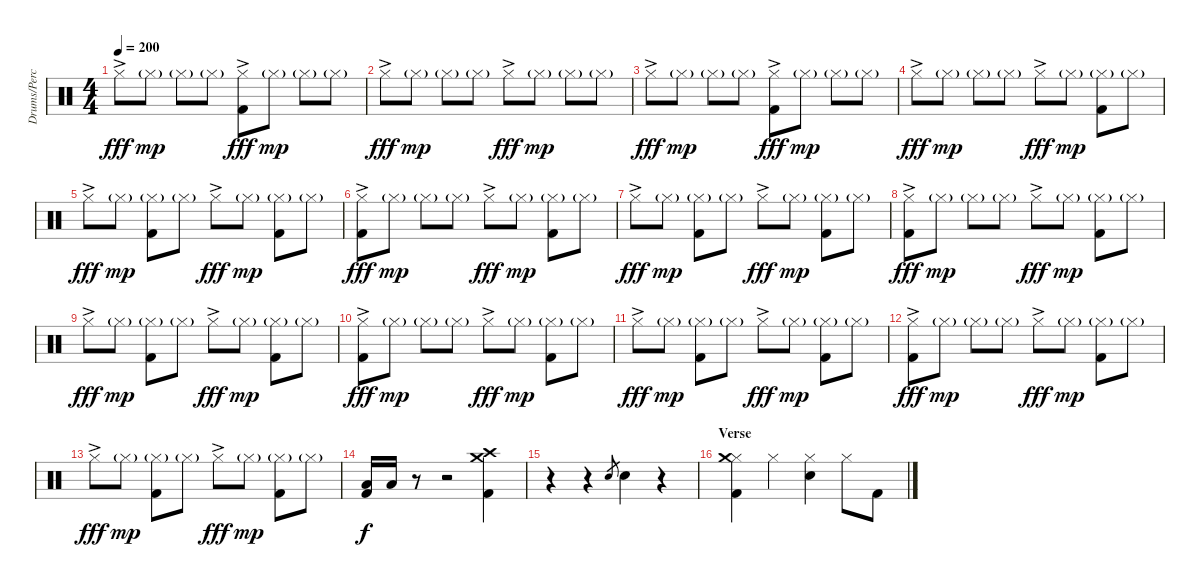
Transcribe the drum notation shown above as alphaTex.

\track ("Drums/Percussion" "Drums/Perc") {instrument percussion}
\staff {score}
\articulation defaults
\ts (4 4)
\tempo 200
\clef neutral
\ks c "Hi-Hat (closed)"{ac}.8{dy fff} "Hi-Hat (closed)"{g}.8{dy mp} "Hi-Hat (closed)"{g}.8 "Hi-Hat (closed)"{g}.8
("Kick (hit) 2" "Hi-Hat (closed)"{ac}).8{dy fff} "Hi-Hat (closed)"{g}.8{dy mp} "Hi-Hat (closed)"{g}.8 "Hi-Hat (closed)"{g}.8 |
"Hi-Hat (closed)"{ac}.8{dy fff} "Hi-Hat (closed)"{g}.8{dy mp} "Hi-Hat (closed)"{g}.8 "Hi-Hat (closed)"{g}.8 "Hi-Hat (closed)"{ac}.8{dy fff} "Hi-Hat (closed)"{g}.8{dy mp} "Hi-Hat (closed)"{g}.8 "Hi-Hat (closed)"{g}.8 |
"Hi-Hat (closed)"{ac}.8{dy fff} "Hi-Hat (closed)"{g}.8{dy mp} "Hi-Hat (closed)"{g}.8 "Hi-Hat (closed)"{g}.8 ("Kick (hit) 2" "Hi-Hat (closed)"{ac}).8{dy fff} "Hi-Hat (closed)"{g}.8{dy mp} "Hi-Hat (closed)"{g}.8 "Hi-Hat (closed)"{g}.8 |
"Hi-Hat (closed)"{ac}.8{dy fff} "Hi-Hat (closed)"{g}.8{dy mp} "Hi-Hat (closed)"{g}.8 "Hi-Hat (closed)"{g}.8 "Hi-Hat (closed)"{ac}.8{dy fff} "Hi-Hat (closed)"{g}.8{dy mp} ("Kick (hit) 2" "Hi-Hat (closed)"{g}).8 "Hi-Hat (closed)"{g}.8 |
"Hi-Hat (closed)"{ac}.8{dy fff} "Hi-Hat (closed)"{g}.8{dy mp} ("Kick (hit) 2" "Hi-Hat (closed)"{g}).8 "Hi-Hat (closed)"{g}.8 "Hi-Hat (closed)"{ac}.8{dy fff} "Hi-Hat (closed)"{g}.8{dy mp} ("Kick (hit) 2" "Hi-Hat (closed)"{g}).8 "Hi-Hat (closed)"{g}.8 |
("Kick (hit) 2" "Hi-Hat (closed)"{ac}).8{dy fff} "Hi-Hat (closed)"{g}.8{dy mp} "Hi-Hat (closed)"{g}.8 "Hi-Hat (closed)"{g}.8 "Hi-Hat (closed)"{ac}.8{dy fff} "Hi-Hat (closed)"{g}.8{dy mp} ("Kick (hit) 2" "Hi-Hat (closed)"{g}).8 "Hi-Hat (closed)"{g}.8 |
"Hi-Hat (closed)"{ac}.8{dy fff} "Hi-Hat (closed)"{g}.8{dy mp} ("Kick (hit) 2" "Hi-Hat (closed)"{g}).8 "Hi-Hat (closed)"{g}.8 "Hi-Hat (closed)"{ac}.8{dy fff} "Hi-Hat (closed)"{g}.8{dy mp} ("Kick (hit) 2" "Hi-Hat (closed)"{g}).8 "Hi-Hat (closed)"{g}.8 |
("Kick (hit) 2" "Hi-Hat (closed)"{ac}).8{dy fff} "Hi-Hat (closed)"{g}.8{dy mp} "Hi-Hat (closed)"{g}.8 "Hi-Hat (closed)"{g}.8 "Hi-Hat (closed)"{ac}.8{dy fff} "Hi-Hat (closed)"{g}.8{dy mp} ("Kick (hit) 2" "Hi-Hat (closed)"{g}).8 "Hi-Hat (closed)"{g}.8 |
"Hi-Hat (closed)"{ac}.8{dy fff} "Hi-Hat (closed)"{g}.8{dy mp} ("Kick (hit) 2" "Hi-Hat (closed)"{g}).8 "Hi-Hat (closed)"{g}.8 "Hi-Hat (closed)"{ac}.8{dy fff} "Hi-Hat (closed)"{g}.8{dy mp} ("Kick (hit) 2" "Hi-Hat (closed)"{g}).8 "Hi-Hat (closed)"{g}.8 |
("Kick (hit) 2" "Hi-Hat (closed)"{ac}).8{dy fff} "Hi-Hat (closed)"{g}.8{dy mp} "Hi-Hat (closed)"{g}.8 "Hi-Hat (closed)"{g}.8 "Hi-Hat (closed)"{ac}.8{dy fff} "Hi-Hat (closed)"{g}.8{dy mp} ("Kick (hit) 2" "Hi-Hat (closed)"{g}).8 "Hi-Hat (closed)"{g}.8 |
"Hi-Hat (closed)"{ac}.8{dy fff} "Hi-Hat (closed)"{g}.8{dy mp} ("Kick (hit) 2" "Hi-Hat (closed)"{g}).8 "Hi-Hat (closed)"{g}.8 "Hi-Hat (closed)"{ac}.8{dy fff} "Hi-Hat (closed)"{g}.8{dy mp} ("Kick (hit) 2" "Hi-Hat (closed)"{g}).8 "Hi-Hat (closed)"{g}.8 |
("Kick (hit) 2" "Hi-Hat (closed)"{ac}).8{dy fff} "Hi-Hat (closed)"{g}.8{dy mp} "Hi-Hat (closed)"{g}.8 "Hi-Hat (closed)"{g}.8 "Hi-Hat (closed)"{ac}.8{dy fff} "Hi-Hat (closed)"{g}.8{dy mp} ("Kick (hit) 2" "Hi-Hat (closed)"{g}).8 "Hi-Hat (closed)"{g}.8 |
"Hi-Hat (closed)"{ac}.8{dy fff} "Hi-Hat (closed)"{g}.8{dy mp} ("Kick (hit) 2" "Hi-Hat (closed)"{g}).8 "Hi-Hat (closed)"{g}.8 "Hi-Hat (closed)"{ac}.8{dy fff} "Hi-Hat (closed)"{g}.8{dy mp} ("Kick (hit) 2" "Hi-Hat (closed)"{g}).8 "Hi-Hat (closed)"{g}.8 |
("Kick (hit) 2" "Low Floor Tom (hit)").16{dy f} "Low Floor Tom (hit)".16 r.8 r.2 ("Kick (hit) 2" "Crash high (hit)" "Crash medium (hit)").4 |
r.4 r.4 "Snare (hit) 2".8{gr} "Snare (hit) 2".4 r.4 |
\section ("" "Verse")
("Kick (hit) 2" "Hi-Hat (closed)" "Crash medium (hit)").4 "Hi-Hat (closed)".4 ("Snare (hit) 2" "Hi-Hat (closed)").4 "Hi-Hat (closed)".8 "Kick (hit) 2".8
